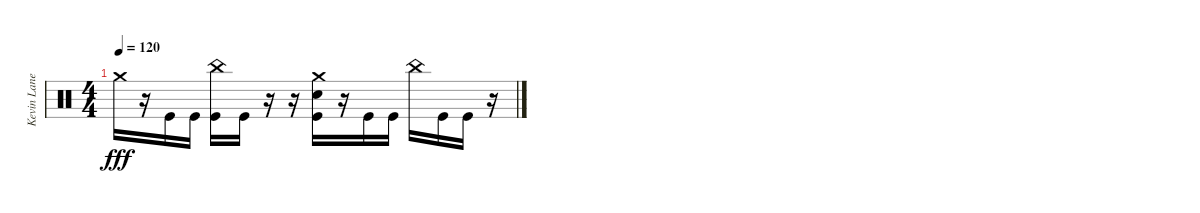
\track ("Kevin Lane" "Kevin Lane") {instrument percussion}
\staff {score}
\articulation defaults
\ts (4 4)
\tempo 120
\clef neutral
\ks c "Crash medium (hit)".16{dy fff}
r.16 "Kick (hit)".16 "Kick (hit)".16 ("China (hit)" "Kick (hit)").16 "Kick (hit)".16 r.16 r.16 ("Crash medium (hit)" "Snare (hit) 2" "Kick (hit)").16 r.16 "Kick (hit)".16 "Kick (hit)".16 "China (hit)".16 "Kick (hit)".16 "Kick (hit)".16 r.16
